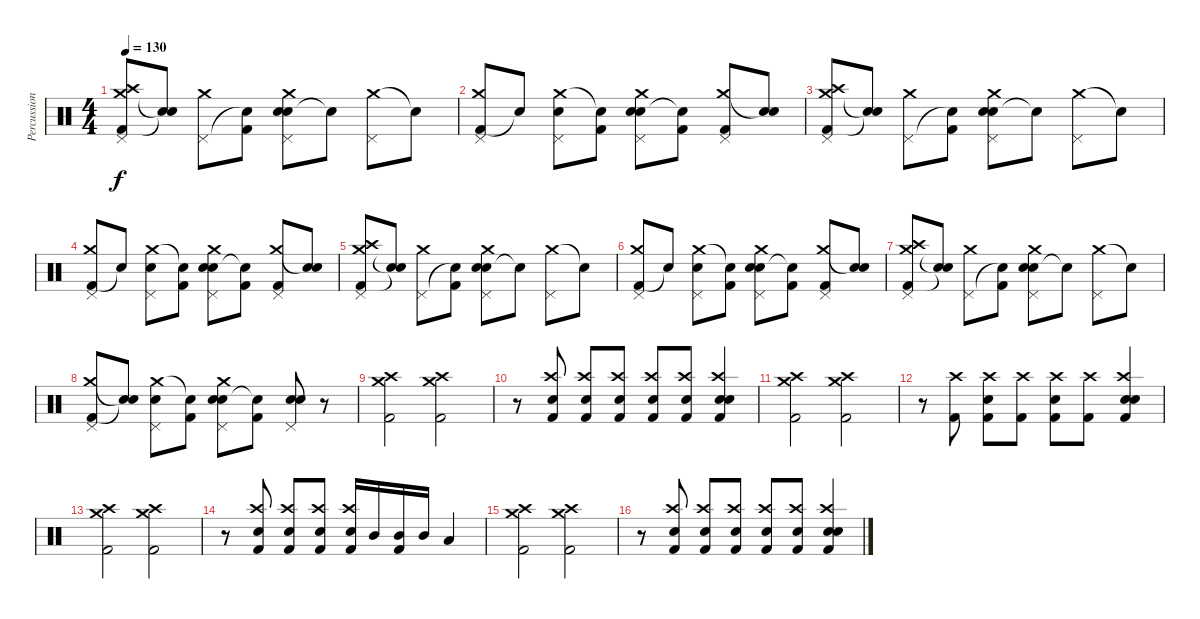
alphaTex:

\track ("Percussion" "Percussion") {instrument percussion}
\staff {score}
\articulation defaults
\ts (4 4)
\tempo 130
\clef neutral
\ks c
("Kick (hit) 2" "Crash medium (hit)" "Crash high (hit)" "Pedal Hi-Hat (hit)").8{dy f} ("Snare (hit)"{t} "Snare (hit)"{t}).8 ("Crash medium (hit)" "Pedal Hi-Hat (hit)").8 ("Kick (hit) 2" "Snare (hit)"{t}).8 ("Electric Snare (hit)" "Electric Snare (hit)" "Crash medium (hit)" "Pedal Hi-Hat (hit)").8 "Snare (hit)"{t}.8 ("Crash medium (hit)" "Pedal Hi-Hat (hit)").8 "Snare (hit)"{t}.8 |
("Kick (hit) 2" "Crash medium (hit)" "Pedal Hi-Hat (hit)").8 "Snare (hit)"{t}.8 ("Electric Snare (hit)" "Crash medium (hit)" "Pedal Hi-Hat (hit)").8 ("Kick (hit) 2" "Snare (hit)"{t}).8 ("Electric Snare (hit)" "Electric Snare (hit)" "Crash medium (hit)" "Pedal Hi-Hat (hit)").8 ("Kick (hit) 2" "Snare (hit)"{t}).8 ("Kick (hit) 2" "Crash medium (hit)" "Pedal Hi-Hat (hit)").8 ("Electric Snare (hit)" "Snare (hit)"{t}).8 |
("Kick (hit) 2" "Crash medium (hit)" "Crash high (hit)" "Pedal Hi-Hat (hit)").8 ("Snare (hit)"{t} "Snare (hit)"{t}).8 ("Crash medium (hit)" "Pedal Hi-Hat (hit)").8 ("Kick (hit) 2" "Snare (hit)"{t}).8 ("Electric Snare (hit)" "Electric Snare (hit)" "Crash medium (hit)" "Pedal Hi-Hat (hit)").8 "Snare (hit)"{t}.8 ("Crash medium (hit)" "Pedal Hi-Hat (hit)").8 "Snare (hit)"{t}.8 |
("Kick (hit) 2" "Crash medium (hit)" "Pedal Hi-Hat (hit)").8 "Snare (hit)"{t}.8 ("Electric Snare (hit)" "Crash medium (hit)" "Pedal Hi-Hat (hit)").8 ("Kick (hit) 2" "Snare (hit)"{t}).8 ("Electric Snare (hit)" "Electric Snare (hit)" "Crash medium (hit)" "Pedal Hi-Hat (hit)").8 ("Kick (hit) 2" "Snare (hit)"{t}).8 ("Kick (hit) 2" "Crash medium (hit)" "Pedal Hi-Hat (hit)").8 ("Electric Snare (hit)" "Snare (hit)"{t}).8 |
("Kick (hit) 2" "Crash medium (hit)" "Crash high (hit)" "Pedal Hi-Hat (hit)").8 ("Snare (hit)"{t} "Snare (hit)"{t}).8 ("Crash medium (hit)" "Pedal Hi-Hat (hit)").8 ("Kick (hit) 2" "Snare (hit)"{t}).8 ("Electric Snare (hit)" "Electric Snare (hit)" "Crash medium (hit)" "Pedal Hi-Hat (hit)").8 "Snare (hit)"{t}.8 ("Crash medium (hit)" "Pedal Hi-Hat (hit)").8 "Snare (hit)"{t}.8 |
("Kick (hit) 2" "Crash medium (hit)" "Pedal Hi-Hat (hit)").8 "Snare (hit)"{t}.8 ("Electric Snare (hit)" "Crash medium (hit)" "Pedal Hi-Hat (hit)").8 ("Kick (hit) 2" "Snare (hit)"{t}).8 ("Electric Snare (hit)" "Electric Snare (hit)" "Crash medium (hit)" "Pedal Hi-Hat (hit)").8 ("Kick (hit) 2" "Snare (hit)"{t}).8 ("Kick (hit) 2" "Crash medium (hit)" "Pedal Hi-Hat (hit)").8 ("Electric Snare (hit)" "Snare (hit)"{t}).8 |
("Kick (hit) 2" "Crash medium (hit)" "Crash high (hit)" "Pedal Hi-Hat (hit)").8 ("Snare (hit)"{t} "Snare (hit)"{t}).8 ("Crash medium (hit)" "Pedal Hi-Hat (hit)").8 ("Kick (hit) 2" "Snare (hit)"{t}).8 ("Electric Snare (hit)" "Electric Snare (hit)" "Crash medium (hit)" "Pedal Hi-Hat (hit)").8 "Snare (hit)"{t}.8 ("Crash medium (hit)" "Pedal Hi-Hat (hit)").8 "Snare (hit)"{t}.8 |
("Kick (hit) 2" "Crash medium (hit)" "Pedal Hi-Hat (hit)").8 ("Snare (hit)"{t} "Snare (hit)"{t}).8 ("Electric Snare (hit)" "Crash medium (hit)" "Pedal Hi-Hat (hit)").8 ("Kick (hit) 2" "Snare (hit)"{t}).8 ("Electric Snare (hit)" "Electric Snare (hit)" "Crash medium (hit)" "Pedal Hi-Hat (hit)").8 ("Kick (hit) 2" "Snare (hit)"{t}).8 ("Electric Snare (hit)" "Electric Snare (hit)" "Pedal Hi-Hat (hit)").8 r.8 |
("Kick (hit) 2" "Crash high (hit)" "Crash medium (hit)").2 ("Kick (hit) 2" "Crash high (hit)" "Crash medium (hit)").2 |
r.8 ("Kick (hit) 2" "Electric Snare (hit)" "Crash high (hit)").8 ("Kick (hit) 2" "Electric Snare (hit)" "Crash high (hit)").8 ("Kick (hit) 2" "Electric Snare (hit)" "Crash high (hit)").8 ("Kick (hit) 2" "Electric Snare (hit)" "Crash high (hit)").8 ("Kick (hit) 2" "Electric Snare (hit)" "Crash high (hit)").8 ("Kick (hit) 2" "Electric Snare (hit)" "Electric Snare (hit)" "Crash high (hit)").4 |
("Kick (hit) 2" "Crash high (hit)" "Crash medium (hit)").2 ("Kick (hit) 2" "Crash high (hit)" "Crash medium (hit)").2 |
r.8 ("Kick (hit) 2" "Crash high (hit)").8 ("Kick (hit) 2" "Electric Snare (hit)" "Crash high (hit)").8 ("Kick (hit) 2" "Crash high (hit)").8 ("Kick (hit) 2" "Electric Snare (hit)" "Crash high (hit)").8 ("Kick (hit) 2" "Crash high (hit)").8 ("Kick (hit) 2" "Electric Snare (hit)" "Electric Snare (hit)" "Crash high (hit)").4 |
("Kick (hit) 2" "Crash high (hit)" "Crash medium (hit)").2 ("Kick (hit) 2" "Crash high (hit)" "Crash medium (hit)").2 |
r.8 ("Kick (hit) 2" "Electric Snare (hit)" "Crash high (hit)").8 ("Kick (hit) 2" "Electric Snare (hit)" "Crash high (hit)").8 ("Kick (hit) 2" "Electric Snare (hit)" "Crash high (hit)").8 ("Kick (hit) 2" "Electric Snare (hit)" "Crash high (hit)").16 "Mid Tom (hit)".16 ("Kick (hit) 2" "Mid Tom (hit)").16 "Mid Tom (hit)".16 "Low Tom (hit)".4 |
("Kick (hit) 2" "Crash high (hit)" "Crash medium (hit)").2 ("Kick (hit) 2" "Crash high (hit)" "Crash medium (hit)").2 |
r.8 ("Kick (hit) 2" "Electric Snare (hit)" "Crash high (hit)").8 ("Kick (hit) 2" "Electric Snare (hit)" "Crash high (hit)").8 ("Kick (hit) 2" "Electric Snare (hit)" "Crash high (hit)").8 ("Kick (hit) 2" "Electric Snare (hit)" "Crash high (hit)").8 ("Kick (hit) 2" "Electric Snare (hit)" "Crash high (hit)").8 ("Kick (hit) 2" "Electric Snare (hit)" "Electric Snare (hit)" "Crash high (hit)").4
